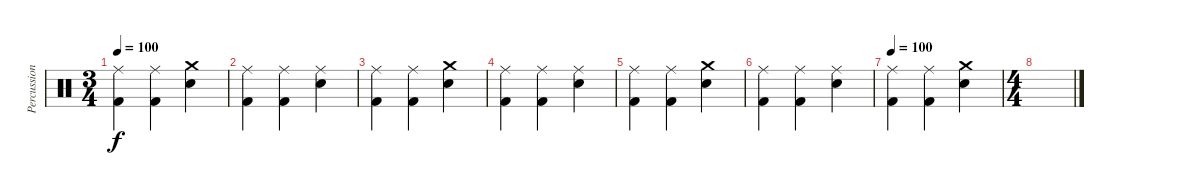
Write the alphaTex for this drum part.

\track ("Percussion" "Percussion") {instrument percussion}
\staff {score}
\articulation defaults
\ts (3 4)
\tempo 100
\clef neutral
\ks c
("Ride (middle)" "Kick (hit) 2").4{dy f} ("Ride (middle)" "Kick (hit) 2").4 ("Crash medium (hit)" "Snare (hit) 2").4 |
("Ride (middle)" "Kick (hit) 2").4 ("Ride (middle)" "Kick (hit) 2").4 ("Ride (middle)" "Snare (hit) 2").4 |
("Ride (middle)" "Kick (hit) 2").4 ("Ride (middle)" "Kick (hit) 2").4 ("Crash medium (hit)" "Snare (hit) 2").4 |
("Ride (middle)" "Kick (hit) 2").4 ("Ride (middle)" "Kick (hit) 2").4 ("Ride (middle)" "Snare (hit) 2").4 |
("Ride (middle)" "Kick (hit) 2").4 ("Ride (middle)" "Kick (hit) 2").4 ("Crash medium (hit)" "Snare (hit) 2").4 |
("Ride (middle)" "Kick (hit) 2").4 ("Ride (middle)" "Kick (hit) 2").4 ("Ride (middle)" "Snare (hit) 2").4 |
\tempo 100
("Ride (middle)" "Kick (hit) 2").4 ("Ride (middle)" "Kick (hit) 2").4 ("Crash medium (hit)" "Snare (hit) 2").4 |
\ts (4 4)
